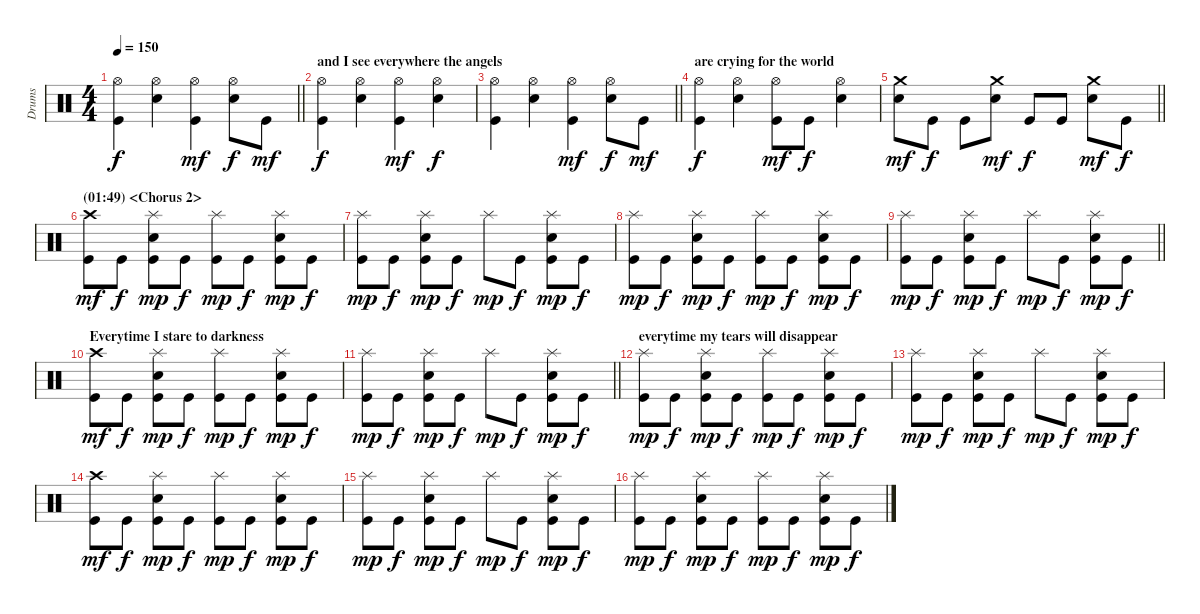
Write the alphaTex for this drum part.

\track ("Drums" "Drums") {instrument percussion}
\staff {score}
\articulation defaults
\ts (4 4)
\tempo 150
\clef neutral
\barLineRight lightlight
\ks c
("Hi-Hat (open)" "Kick (hit)").4{dy f} ("Hi-Hat (open)" "Snare (hit) 2").4 ("Hi-Hat (open)" "Kick (hit)").4{dy mf} ("Hi-Hat (open)" "Snare (hit) 2").8{dy f} "Kick (hit)".8{dy mf} |
\section ("" "and I see everywhere the angels")
("Hi-Hat (open)" "Kick (hit)").4{dy f} ("Hi-Hat (open)" "Snare (hit) 2").4 ("Hi-Hat (open)" "Kick (hit)").4{dy mf} ("Hi-Hat (open)" "Snare (hit) 2").4{dy f} |
\barLineRight lightlight
("Hi-Hat (open)" "Kick (hit)").4 ("Hi-Hat (open)" "Snare (hit) 2").4 ("Hi-Hat (open)" "Kick (hit)").4{dy mf} ("Hi-Hat (open)" "Snare (hit) 2").8{dy f} "Kick (hit)".8{dy mf} |
\section ("" "are crying for the world")
("Hi-Hat (open)" "Kick (hit)").4{dy f} ("Hi-Hat (open)" "Snare (hit) 2").4 ("Hi-Hat (open)" "Kick (hit)").8{dy mf} "Kick (hit)".8{dy f} ("Hi-Hat (open)" "Snare (hit) 2").4 |
\barLineRight lightlight
("Crash medium (hit)" "Snare (hit) 2").8{dy mf} "Kick (hit)".8{dy f} "Kick (hit)".8 ("Crash medium (hit)" "Snare (hit) 2").8{dy mf} "Kick (hit)".8{dy f} "Kick (hit)".8 ("Crash medium (hit)" "Snare (hit) 2").8{dy mf} "Kick (hit)".8{dy f} |
\section ("" "(01:49) <Chorus 2>")
("Crash high (hit)" "Kick (hit)").8{dy mf} "Kick (hit)".8{dy f} ("Splash (hit)" "Snare (hit) 2" "Kick (hit)").8{dy mp} "Kick (hit)".8{dy f} ("Splash (hit)" "Kick (hit)").8{dy mp} "Kick (hit)".8{dy f} ("Splash (hit)" "Snare (hit) 2" "Kick (hit)").8{dy mp} "Kick (hit)".8{dy f} |
("Splash (hit)" "Kick (hit)").8{dy mp} "Kick (hit)".8{dy f} ("Splash (hit)" "Snare (hit) 2" "Kick (hit)").8{dy mp} "Kick (hit)".8{dy f} "Splash (hit)".8{dy mp} "Kick (hit)".8{dy f} ("Splash (hit)" "Snare (hit) 2" "Kick (hit)").8{dy mp} "Kick (hit)".8{dy f} |
("Splash (hit)" "Kick (hit)").8{dy mp} "Kick (hit)".8{dy f} ("Splash (hit)" "Snare (hit) 2" "Kick (hit)").8{dy mp} "Kick (hit)".8{dy f} ("Splash (hit)" "Kick (hit)").8{dy mp} "Kick (hit)".8{dy f} ("Splash (hit)" "Snare (hit) 2" "Kick (hit)").8{dy mp} "Kick (hit)".8{dy f} |
\barLineRight lightlight
("Splash (hit)" "Kick (hit)").8{dy mp} "Kick (hit)".8{dy f} ("Splash (hit)" "Snare (hit) 2" "Kick (hit)").8{dy mp} "Kick (hit)".8{dy f} "Splash (hit)".8{dy mp} "Kick (hit)".8{dy f} ("Splash (hit)" "Snare (hit) 2" "Kick (hit)").8{dy mp} "Kick (hit)".8{dy f} |
\section ("" "Everytime I stare to darkness")
("Crash high (hit)" "Kick (hit)").8{dy mf} "Kick (hit)".8{dy f} ("Splash (hit)" "Snare (hit) 2" "Kick (hit)").8{dy mp} "Kick (hit)".8{dy f} ("Splash (hit)" "Kick (hit)").8{dy mp} "Kick (hit)".8{dy f} ("Splash (hit)" "Snare (hit) 2" "Kick (hit)").8{dy mp} "Kick (hit)".8{dy f} |
\barLineRight lightlight
("Splash (hit)" "Kick (hit)").8{dy mp} "Kick (hit)".8{dy f} ("Splash (hit)" "Snare (hit) 2" "Kick (hit)").8{dy mp} "Kick (hit)".8{dy f} "Splash (hit)".8{dy mp} "Kick (hit)".8{dy f} ("Splash (hit)" "Snare (hit) 2" "Kick (hit)").8{dy mp} "Kick (hit)".8{dy f} |
\section ("" "everytime my tears will disappear")
("Splash (hit)" "Kick (hit)").8{dy mp} "Kick (hit)".8{dy f} ("Splash (hit)" "Snare (hit) 2" "Kick (hit)").8{dy mp} "Kick (hit)".8{dy f} ("Splash (hit)" "Kick (hit)").8{dy mp} "Kick (hit)".8{dy f} ("Splash (hit)" "Snare (hit) 2" "Kick (hit)").8{dy mp} "Kick (hit)".8{dy f} |
("Splash (hit)" "Kick (hit)").8{dy mp} "Kick (hit)".8{dy f} ("Splash (hit)" "Snare (hit) 2" "Kick (hit)").8{dy mp} "Kick (hit)".8{dy f} "Splash (hit)".8{dy mp} "Kick (hit)".8{dy f} ("Splash (hit)" "Snare (hit) 2" "Kick (hit)").8{dy mp} "Kick (hit)".8{dy f} |
("Crash high (hit)" "Kick (hit)").8{dy mf} "Kick (hit)".8{dy f} ("Splash (hit)" "Snare (hit) 2" "Kick (hit)").8{dy mp} "Kick (hit)".8{dy f} ("Splash (hit)" "Kick (hit)").8{dy mp} "Kick (hit)".8{dy f} ("Splash (hit)" "Snare (hit) 2" "Kick (hit)").8{dy mp} "Kick (hit)".8{dy f} |
("Splash (hit)" "Kick (hit)").8{dy mp} "Kick (hit)".8{dy f} ("Splash (hit)" "Snare (hit) 2" "Kick (hit)").8{dy mp} "Kick (hit)".8{dy f} "Splash (hit)".8{dy mp} "Kick (hit)".8{dy f} ("Splash (hit)" "Snare (hit) 2" "Kick (hit)").8{dy mp} "Kick (hit)".8{dy f} |
("Splash (hit)" "Kick (hit)").8{dy mp} "Kick (hit)".8{dy f} ("Splash (hit)" "Snare (hit) 2" "Kick (hit)").8{dy mp} "Kick (hit)".8{dy f} ("Splash (hit)" "Kick (hit)").8{dy mp} "Kick (hit)".8{dy f} ("Splash (hit)" "Snare (hit) 2" "Kick (hit)").8{dy mp} "Kick (hit)".8{dy f}
